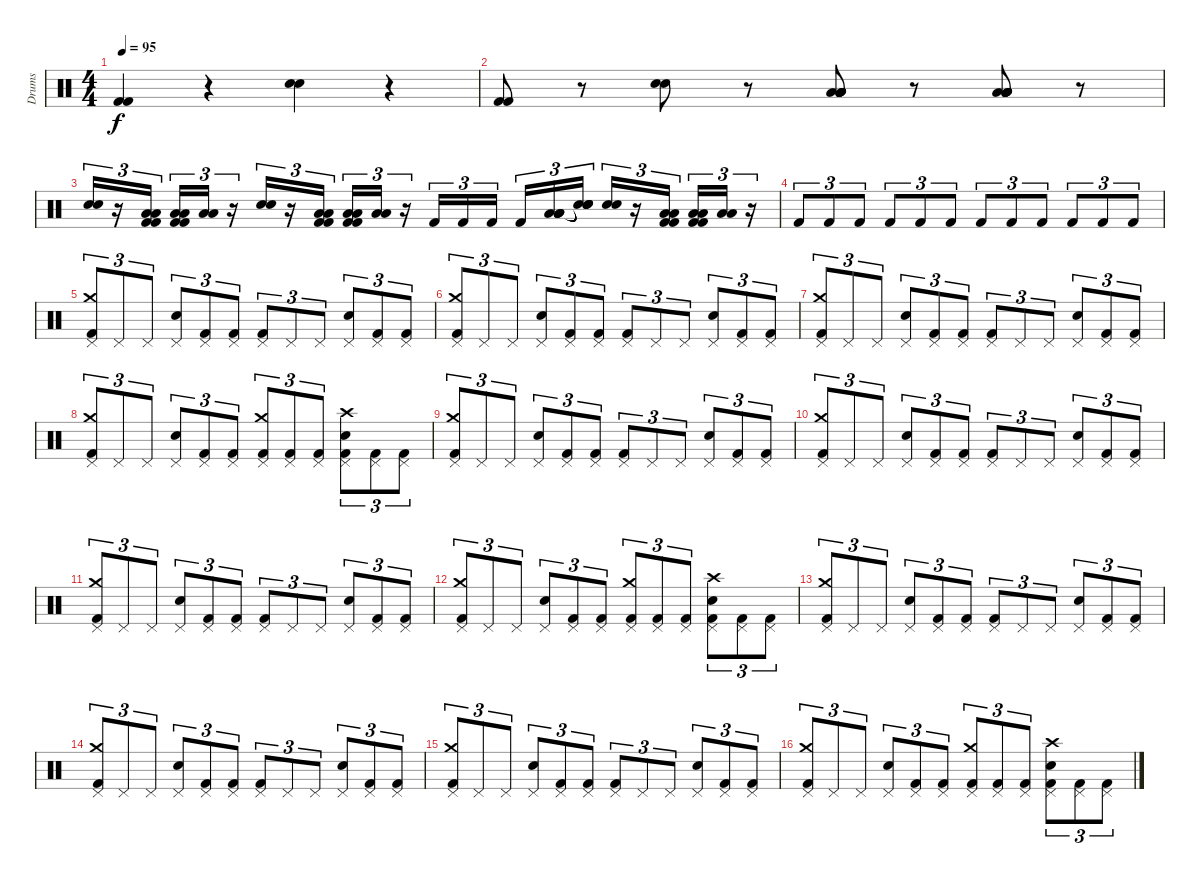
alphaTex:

\track ("Drums" "Drums") {instrument percussion}
\staff {score}
\articulation defaults
\ts (4 4)
\tempo 95
\clef neutral
\ks c
("Kick (hit) 2" "Kick (hit) 2").4{dy f} r.4 ("Snare (hit) 2" "Snare (hit) 2").4 r.4 |
("Kick (hit) 2" "Kick (hit) 2").8 r.8 ("Snare (hit) 2" "Snare (hit) 2").8 r.8 ("Low Tom (hit)" "Low Tom (hit)" "Low Tom (hit)" "Low Tom (hit)" "Low Tom (hit)" "Low Tom (hit)").8 r.8 ("Low Floor Tom (hit)" "Low Floor Tom (hit)" "Low Floor Tom (hit)" "Low Floor Tom (hit)" "Low Floor Tom (hit)" "Low Floor Tom (hit)").8 r.8 |
("Snare (hit) 2" "Snare (hit) 2").16{tu (3 2)} r.16{tu (3 2)} ("Kick (hit) 2" "Kick (hit) 2" "Low Tom (hit)" "Low Tom (hit)").16{tu (3 2)} ("Kick (hit) 2" "Kick (hit) 2" "Low Tom (hit)" "Low Tom (hit)").16{tu (3 2)} ("Low Floor Tom (hit)" "Low Floor Tom (hit)").16{tu (3 2)} r.16{tu (3 2)} ("Snare (hit) 2" "Snare (hit) 2").16{tu (3 2)} r.16{tu (3 2)} ("Kick (hit) 2" "Kick (hit) 2" "Low Tom (hit)" "Low Tom (hit)").16{tu (3 2)} ("Kick (hit) 2" "Kick (hit) 2" "Low Tom (hit)" "Low Tom (hit)").16{tu (3 2)} ("Low Floor Tom (hit)" "Low Floor Tom (hit)").16{tu (3 2)} r.16{tu (3 2)} "Kick (hit) 2".16{tu (3 2)} "Kick (hit) 2".16{tu (3 2)} "Kick (hit) 2".16{tu (3 2)} "Kick (hit) 2".16{tu (3 2)} ("Low Tom (hit)" "Low Tom (hit)" "Low Tom (hit)" "Low Tom (hit)").16{tu (3 2)} ("Snare (hit)"{t} "Snare (hit)"{t} "Snare (hit)"{t} "Snare (hit)"{t}).16{tu (3 2)} ("Snare (hit) 2" "Snare (hit) 2").16{tu (3 2)} r.16{tu (3 2)} ("Kick (hit) 2" "Kick (hit) 2" "Low Tom (hit)" "Low Tom (hit)").16{tu (3 2)} ("Kick (hit) 2" "Kick (hit) 2" "Low Tom (hit)" "Low Tom (hit)").16{tu (3 2)} ("Low Floor Tom (hit)" "Low Floor Tom (hit)").16{tu (3 2)} r.16{tu (3 2)} |
"Kick (hit) 2".8{tu (3 2) volume 8} "Kick (hit) 2".8{tu (3 2) volume 13} "Kick (hit) 2".8{tu (3 2)} "Kick (hit) 2".8{tu (3 2)} "Kick (hit) 2".8{tu (3 2)} "Kick (hit) 2".8{tu (3 2)} "Kick (hit) 2".8{tu (3 2)} "Kick (hit) 2".8{tu (3 2)} "Kick (hit) 2".8{tu (3 2)} "Kick (hit) 2".8{tu (3 2)} "Kick (hit) 2".8{tu (3 2)} "Kick (hit) 2".8{tu (3 2)} |
("Kick (hit) 2" "Crash medium (hit)" "Pedal Hi-Hat (hit)").8{tu (3 2)} "Pedal Hi-Hat (hit)".8{tu (3 2)} "Pedal Hi-Hat (hit)".8{tu (3 2)} ("Snare (hit) 2" "Pedal Hi-Hat (hit)").8{tu (3 2)} ("Kick (hit) 2" "Pedal Hi-Hat (hit)").8{tu (3 2)} ("Kick (hit) 2" "Pedal Hi-Hat (hit)").8{tu (3 2)} ("Kick (hit) 2" "Pedal Hi-Hat (hit)").8{tu (3 2)} "Pedal Hi-Hat (hit)".8{tu (3 2)} "Pedal Hi-Hat (hit)".8{tu (3 2)} ("Snare (hit) 2" "Pedal Hi-Hat (hit)").8{tu (3 2)} ("Kick (hit) 2" "Pedal Hi-Hat (hit)").8{tu (3 2)} ("Kick (hit) 2" "Pedal Hi-Hat (hit)").8{tu (3 2)} |
("Kick (hit) 2" "Crash medium (hit)" "Pedal Hi-Hat (hit)").8{tu (3 2)} "Pedal Hi-Hat (hit)".8{tu (3 2)} "Pedal Hi-Hat (hit)".8{tu (3 2)} ("Snare (hit) 2" "Pedal Hi-Hat (hit)").8{tu (3 2)} ("Kick (hit) 2" "Pedal Hi-Hat (hit)").8{tu (3 2)} ("Kick (hit) 2" "Pedal Hi-Hat (hit)").8{tu (3 2)} ("Kick (hit) 2" "Pedal Hi-Hat (hit)").8{tu (3 2)} "Pedal Hi-Hat (hit)".8{tu (3 2)} "Pedal Hi-Hat (hit)".8{tu (3 2)} ("Snare (hit) 2" "Pedal Hi-Hat (hit)").8{tu (3 2)} ("Kick (hit) 2" "Pedal Hi-Hat (hit)").8{tu (3 2)} ("Kick (hit) 2" "Pedal Hi-Hat (hit)").8{tu (3 2)} |
("Kick (hit) 2" "Crash medium (hit)" "Pedal Hi-Hat (hit)").8{tu (3 2)} "Pedal Hi-Hat (hit)".8{tu (3 2)} "Pedal Hi-Hat (hit)".8{tu (3 2)} ("Snare (hit) 2" "Pedal Hi-Hat (hit)").8{tu (3 2)} ("Kick (hit) 2" "Pedal Hi-Hat (hit)").8{tu (3 2)} ("Kick (hit) 2" "Pedal Hi-Hat (hit)").8{tu (3 2)} ("Kick (hit) 2" "Pedal Hi-Hat (hit)").8{tu (3 2)} "Pedal Hi-Hat (hit)".8{tu (3 2)} "Pedal Hi-Hat (hit)".8{tu (3 2)} ("Snare (hit) 2" "Pedal Hi-Hat (hit)").8{tu (3 2)} ("Kick (hit) 2" "Pedal Hi-Hat (hit)").8{tu (3 2)} ("Kick (hit) 2" "Pedal Hi-Hat (hit)").8{tu (3 2)} |
("Kick (hit) 2" "Crash medium (hit)" "Pedal Hi-Hat (hit)").8{tu (3 2)} "Pedal Hi-Hat (hit)".8{tu (3 2)} "Pedal Hi-Hat (hit)".8{tu (3 2)} ("Snare (hit) 2" "Pedal Hi-Hat (hit)").8{tu (3 2)} ("Kick (hit) 2" "Pedal Hi-Hat (hit)").8{tu (3 2)} ("Kick (hit) 2" "Pedal Hi-Hat (hit)").8{tu (3 2)} ("Kick (hit) 2" "Crash medium (hit)" "Pedal Hi-Hat (hit)").8{tu (3 2)} ("Kick (hit) 2" "Pedal Hi-Hat (hit)").8{tu (3 2)} ("Kick (hit) 2" "Pedal Hi-Hat (hit)").8{tu (3 2)} ("Kick (hit) 2" "Crash high (hit)" "Snare (hit) 2" "Pedal Hi-Hat (hit)").8{tu (3 2)} ("Kick (hit) 2" "Pedal Hi-Hat (hit)").8{tu (3 2)} ("Kick (hit) 2" "Pedal Hi-Hat (hit)").8{tu (3 2)} |
("Kick (hit) 2" "Crash medium (hit)" "Pedal Hi-Hat (hit)").8{tu (3 2)} "Pedal Hi-Hat (hit)".8{tu (3 2)} "Pedal Hi-Hat (hit)".8{tu (3 2)} ("Snare (hit) 2" "Pedal Hi-Hat (hit)").8{tu (3 2)} ("Kick (hit) 2" "Pedal Hi-Hat (hit)").8{tu (3 2)} ("Kick (hit) 2" "Pedal Hi-Hat (hit)").8{tu (3 2)} ("Kick (hit) 2" "Pedal Hi-Hat (hit)").8{tu (3 2)} "Pedal Hi-Hat (hit)".8{tu (3 2)} "Pedal Hi-Hat (hit)".8{tu (3 2)} ("Snare (hit) 2" "Pedal Hi-Hat (hit)").8{tu (3 2)} ("Kick (hit) 2" "Pedal Hi-Hat (hit)").8{tu (3 2)} ("Kick (hit) 2" "Pedal Hi-Hat (hit)").8{tu (3 2)} |
("Kick (hit) 2" "Crash medium (hit)" "Pedal Hi-Hat (hit)").8{tu (3 2)} "Pedal Hi-Hat (hit)".8{tu (3 2)} "Pedal Hi-Hat (hit)".8{tu (3 2)} ("Snare (hit) 2" "Pedal Hi-Hat (hit)").8{tu (3 2)} ("Kick (hit) 2" "Pedal Hi-Hat (hit)").8{tu (3 2)} ("Kick (hit) 2" "Pedal Hi-Hat (hit)").8{tu (3 2)} ("Kick (hit) 2" "Pedal Hi-Hat (hit)").8{tu (3 2)} "Pedal Hi-Hat (hit)".8{tu (3 2)} "Pedal Hi-Hat (hit)".8{tu (3 2)} ("Snare (hit) 2" "Pedal Hi-Hat (hit)").8{tu (3 2)} ("Kick (hit) 2" "Pedal Hi-Hat (hit)").8{tu (3 2)} ("Kick (hit) 2" "Pedal Hi-Hat (hit)").8{tu (3 2)} |
("Kick (hit) 2" "Crash medium (hit)" "Pedal Hi-Hat (hit)").8{tu (3 2)} "Pedal Hi-Hat (hit)".8{tu (3 2)} "Pedal Hi-Hat (hit)".8{tu (3 2)} ("Snare (hit) 2" "Pedal Hi-Hat (hit)").8{tu (3 2)} ("Kick (hit) 2" "Pedal Hi-Hat (hit)").8{tu (3 2)} ("Kick (hit) 2" "Pedal Hi-Hat (hit)").8{tu (3 2)} ("Kick (hit) 2" "Pedal Hi-Hat (hit)").8{tu (3 2)} "Pedal Hi-Hat (hit)".8{tu (3 2)} "Pedal Hi-Hat (hit)".8{tu (3 2)} ("Snare (hit) 2" "Pedal Hi-Hat (hit)").8{tu (3 2)} ("Kick (hit) 2" "Pedal Hi-Hat (hit)").8{tu (3 2)} ("Kick (hit) 2" "Pedal Hi-Hat (hit)").8{tu (3 2)} |
("Kick (hit) 2" "Crash medium (hit)" "Pedal Hi-Hat (hit)").8{tu (3 2)} "Pedal Hi-Hat (hit)".8{tu (3 2)} "Pedal Hi-Hat (hit)".8{tu (3 2)} ("Snare (hit) 2" "Pedal Hi-Hat (hit)").8{tu (3 2)} ("Kick (hit) 2" "Pedal Hi-Hat (hit)").8{tu (3 2)} ("Kick (hit) 2" "Pedal Hi-Hat (hit)").8{tu (3 2)} ("Kick (hit) 2" "Crash medium (hit)" "Pedal Hi-Hat (hit)").8{tu (3 2)} ("Kick (hit) 2" "Pedal Hi-Hat (hit)").8{tu (3 2)} ("Kick (hit) 2" "Pedal Hi-Hat (hit)").8{tu (3 2)} ("Kick (hit) 2" "Crash high (hit)" "Snare (hit) 2" "Pedal Hi-Hat (hit)").8{tu (3 2)} ("Kick (hit) 2" "Pedal Hi-Hat (hit)").8{tu (3 2)} ("Kick (hit) 2" "Pedal Hi-Hat (hit)").8{tu (3 2)} |
("Kick (hit) 2" "Crash medium (hit)" "Pedal Hi-Hat (hit)").8{tu (3 2)} "Pedal Hi-Hat (hit)".8{tu (3 2)} "Pedal Hi-Hat (hit)".8{tu (3 2)} ("Snare (hit) 2" "Pedal Hi-Hat (hit)").8{tu (3 2)} ("Kick (hit) 2" "Pedal Hi-Hat (hit)").8{tu (3 2)} ("Kick (hit) 2" "Pedal Hi-Hat (hit)").8{tu (3 2)} ("Kick (hit) 2" "Pedal Hi-Hat (hit)").8{tu (3 2)} "Pedal Hi-Hat (hit)".8{tu (3 2)} "Pedal Hi-Hat (hit)".8{tu (3 2)} ("Snare (hit) 2" "Pedal Hi-Hat (hit)").8{tu (3 2)} ("Kick (hit) 2" "Pedal Hi-Hat (hit)").8{tu (3 2)} ("Kick (hit) 2" "Pedal Hi-Hat (hit)").8{tu (3 2)} |
("Kick (hit) 2" "Crash medium (hit)" "Pedal Hi-Hat (hit)").8{tu (3 2)} "Pedal Hi-Hat (hit)".8{tu (3 2)} "Pedal Hi-Hat (hit)".8{tu (3 2)} ("Snare (hit) 2" "Pedal Hi-Hat (hit)").8{tu (3 2)} ("Kick (hit) 2" "Pedal Hi-Hat (hit)").8{tu (3 2)} ("Kick (hit) 2" "Pedal Hi-Hat (hit)").8{tu (3 2)} ("Kick (hit) 2" "Pedal Hi-Hat (hit)").8{tu (3 2)} "Pedal Hi-Hat (hit)".8{tu (3 2)} "Pedal Hi-Hat (hit)".8{tu (3 2)} ("Snare (hit) 2" "Pedal Hi-Hat (hit)").8{tu (3 2)} ("Kick (hit) 2" "Pedal Hi-Hat (hit)").8{tu (3 2)} ("Kick (hit) 2" "Pedal Hi-Hat (hit)").8{tu (3 2)} |
("Kick (hit) 2" "Crash medium (hit)" "Pedal Hi-Hat (hit)").8{tu (3 2)} "Pedal Hi-Hat (hit)".8{tu (3 2)} "Pedal Hi-Hat (hit)".8{tu (3 2)} ("Snare (hit) 2" "Pedal Hi-Hat (hit)").8{tu (3 2)} ("Kick (hit) 2" "Pedal Hi-Hat (hit)").8{tu (3 2)} ("Kick (hit) 2" "Pedal Hi-Hat (hit)").8{tu (3 2)} ("Kick (hit) 2" "Pedal Hi-Hat (hit)").8{tu (3 2)} "Pedal Hi-Hat (hit)".8{tu (3 2)} "Pedal Hi-Hat (hit)".8{tu (3 2)} ("Snare (hit) 2" "Pedal Hi-Hat (hit)").8{tu (3 2)} ("Kick (hit) 2" "Pedal Hi-Hat (hit)").8{tu (3 2)} ("Kick (hit) 2" "Pedal Hi-Hat (hit)").8{tu (3 2)} |
("Kick (hit) 2" "Crash medium (hit)" "Pedal Hi-Hat (hit)").8{tu (3 2)} "Pedal Hi-Hat (hit)".8{tu (3 2)} "Pedal Hi-Hat (hit)".8{tu (3 2)} ("Snare (hit) 2" "Pedal Hi-Hat (hit)").8{tu (3 2)} ("Kick (hit) 2" "Pedal Hi-Hat (hit)").8{tu (3 2)} ("Kick (hit) 2" "Pedal Hi-Hat (hit)").8{tu (3 2)} ("Kick (hit) 2" "Crash medium (hit)" "Pedal Hi-Hat (hit)").8{tu (3 2)} ("Kick (hit) 2" "Pedal Hi-Hat (hit)").8{tu (3 2)} ("Kick (hit) 2" "Pedal Hi-Hat (hit)").8{tu (3 2)} ("Kick (hit) 2" "Crash high (hit)" "Snare (hit) 2" "Pedal Hi-Hat (hit)").8{tu (3 2)} ("Kick (hit) 2" "Pedal Hi-Hat (hit)").8{tu (3 2)} ("Kick (hit) 2" "Pedal Hi-Hat (hit)").8{tu (3 2)}
